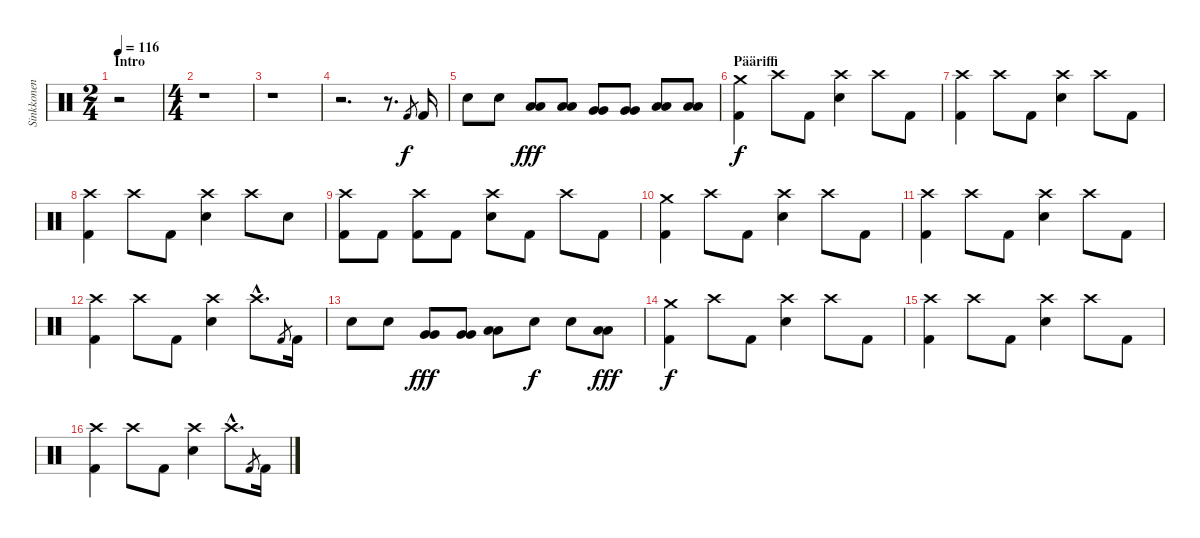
\track ("Sinkkonen" "Sinkkonen") {instrument percussion}
\staff {score}
\articulation defaults
\ts (2 4)
\section ("" "Intro")
\tempo 116
\clef neutral
\ks c
r.2{dy f} |
\ts (4 4)
r.1 |
r.1 |
r.2{d} r.8{d} "Kick (hit) 2".8{gr} "Kick (hit) 2".16 |
"Snare (hit) 2".8 "Snare (hit) 2".8 ("Low Tom (hit)" "Low Tom (hit)").8{dy fff} ("Low Tom (hit)" "Low Tom (hit)").8 ("Very Low Tom (hit)" "Very Low Tom (hit)").8 ("Very Low Tom (hit)" "Very Low Tom (hit)").8 ("Low Floor Tom (hit)" "Low Floor Tom (hit)").8 ("Low Floor Tom (hit)" "Low Floor Tom (hit)").8 |
\section ("" "Pääriffi")
("Kick (hit) 2" "Crash medium (hit)").4{dy f} "Crash high (hit)".8 "Kick (hit) 2".8 ("Crash high (hit)" "Snare (hit) 2").4 "Crash high (hit)".8 "Kick (hit) 2".8 |
("Kick (hit) 2" "Crash high (hit)").4 "Crash high (hit)".8 "Kick (hit) 2".8 ("Crash high (hit)" "Snare (hit) 2").4 "Crash high (hit)".8 "Kick (hit) 2".8 |
("Kick (hit) 2" "Crash high (hit)").4 "Crash high (hit)".8 "Kick (hit) 2".8 ("Crash high (hit)" "Snare (hit) 2").4 "Crash high (hit)".8 "Snare (hit) 2".8 |
("Kick (hit) 2" "Crash high (hit)").8 "Kick (hit) 2".8 ("Kick (hit) 2" "Crash high (hit)").8 "Kick (hit) 2".8 ("Crash high (hit)" "Snare (hit) 2").8 "Kick (hit) 2".8 "Crash high (hit)".8 "Kick (hit) 2".8 |
("Kick (hit) 2" "Crash medium (hit)").4 "Crash high (hit)".8 "Kick (hit) 2".8 ("Crash high (hit)" "Snare (hit) 2").4 "Crash high (hit)".8 "Kick (hit) 2".8 |
("Kick (hit) 2" "Crash high (hit)").4 "Crash high (hit)".8 "Kick (hit) 2".8 ("Crash high (hit)" "Snare (hit) 2").4 "Crash high (hit)".8 "Kick (hit) 2".8 |
("Kick (hit) 2" "Crash high (hit)").4 "Crash high (hit)".8 "Kick (hit) 2".8 ("Crash high (hit)" "Snare (hit) 2").4 "Crash high (hit)"{hac}.8{d} "Kick (hit) 2".8{gr} "Kick (hit) 2".16 |
"Snare (hit) 2".8 "Snare (hit) 2".8 ("Very Low Tom (hit)" "Very Low Tom (hit)").8{dy fff} ("Very Low Tom (hit)" "Very Low Tom (hit)").8 ("Low Floor Tom (hit)" "Low Floor Tom (hit)").8 "Snare (hit) 2".8{dy f} "Snare (hit) 2".8 ("Low Floor Tom (hit)" "Low Floor Tom (hit)").8{dy fff} |
("Kick (hit) 2" "Crash medium (hit)").4{dy f} "Crash high (hit)".8 "Kick (hit) 2".8 ("Crash high (hit)" "Snare (hit) 2").4 "Crash high (hit)".8 "Kick (hit) 2".8 |
("Kick (hit) 2" "Crash high (hit)").4 "Crash high (hit)".8 "Kick (hit) 2".8 ("Crash high (hit)" "Snare (hit) 2").4 "Crash high (hit)".8 "Kick (hit) 2".8 |
("Kick (hit) 2" "Crash high (hit)").4 "Crash high (hit)".8 "Kick (hit) 2".8 ("Crash high (hit)" "Snare (hit) 2").4 "Crash high (hit)"{hac}.8{d} "Kick (hit) 2".8{gr} "Kick (hit) 2".16
